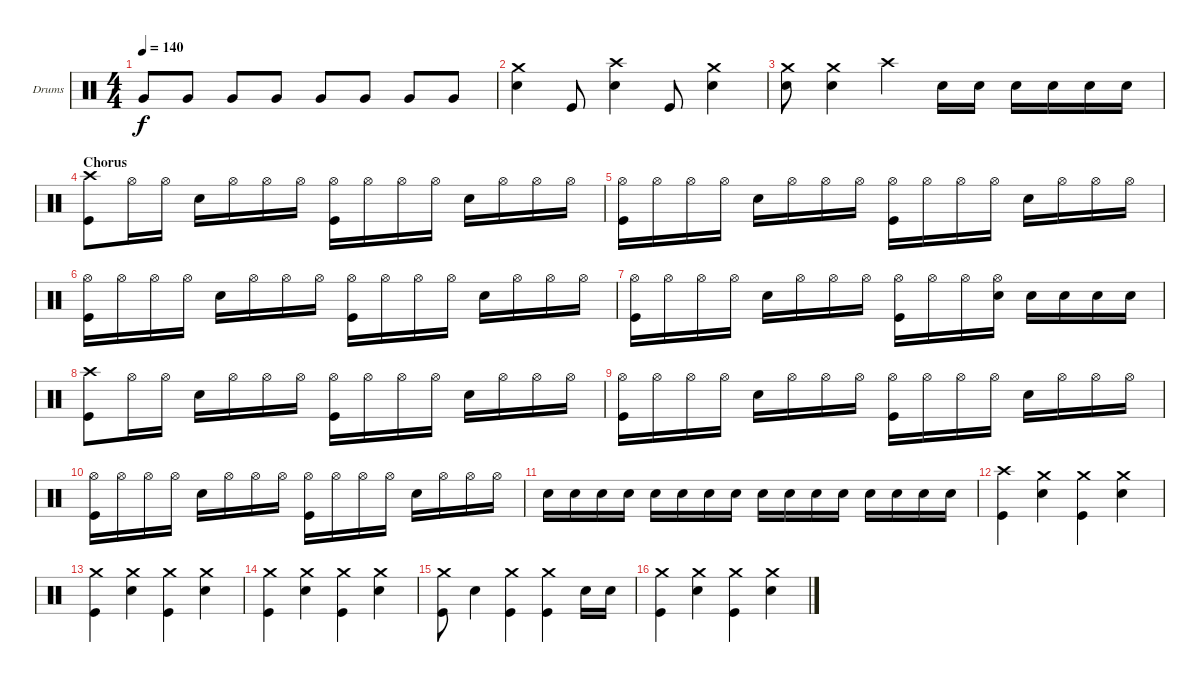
\bracketExtendMode groupsimilarinstruments
\firstSystemTrackNameOrientation horizontal
\otherSystemsTrackNameOrientation horizontal
\track ("Drumkit" "Drums") {instrument percussion}
\staff {score}
\articulation defaults
\ts (4 4)
\tempo 140
\clef neutral
\ks c "Very Low Tom (hit)".8{dy f} "Very Low Tom (hit)".8 "Very Low Tom (hit)".8 "Very Low Tom (hit)".8 "Very Low Tom (hit)".8 "Very Low Tom (hit)".8 "Very Low Tom (hit)".8 "Very Low Tom (hit)".8
|
("Crash medium (hit)" "Snare (hit) 2").4 "Kick (hit)".8 ("Crash high (hit)" "Snare (hit) 2").4 "Kick (hit)".8 ("Crash medium (hit)" "Snare (hit) 2").4 |
("Crash medium (hit)" "Snare (hit) 2").8 ("Crash medium (hit)" "Snare (hit) 2").4 "Crash high (hit)".4 "Snare (hit) 2".16 "Snare (hit) 2".16 "Snare (hit) 2".16 "Snare (hit) 2".16 "Snare (hit) 2".16 "Snare (hit) 2".16 |
\section ("" "Chorus")
("Crash high (hit)" "Kick (hit)").8 "Hi-Hat (open)".16 "Hi-Hat (open)".16 "Snare (hit) 2".16 "Hi-Hat (open)".16 "Hi-Hat (open)".16 "Hi-Hat (open)".16 ("Hi-Hat (open)" "Kick (hit)").16 "Hi-Hat (open)".16 "Hi-Hat (open)".16 "Hi-Hat (open)".16 "Snare (hit) 2".16 "Hi-Hat (open)".16 "Hi-Hat (open)".16 "Hi-Hat (open)".16 |
("Hi-Hat (open)" "Kick (hit)").16 "Hi-Hat (open)".16 "Hi-Hat (open)".16 "Hi-Hat (open)".16 "Snare (hit) 2".16 "Hi-Hat (open)".16 "Hi-Hat (open)".16 "Hi-Hat (open)".16 ("Hi-Hat (open)" "Kick (hit)").16 "Hi-Hat (open)".16 "Hi-Hat (open)".16 "Hi-Hat (open)".16 "Snare (hit) 2".16 "Hi-Hat (open)".16 "Hi-Hat (open)".16 "Hi-Hat (open)".16 |
("Hi-Hat (open)" "Kick (hit)").16 "Hi-Hat (open)".16 "Hi-Hat (open)".16 "Hi-Hat (open)".16 "Snare (hit) 2".16 "Hi-Hat (open)".16 "Hi-Hat (open)".16 "Hi-Hat (open)".16 ("Hi-Hat (open)" "Kick (hit)").16 "Hi-Hat (open)".16 "Hi-Hat (open)".16 "Hi-Hat (open)".16 "Snare (hit) 2".16 "Hi-Hat (open)".16 "Hi-Hat (open)".16 "Hi-Hat (open)".16 |
("Hi-Hat (open)" "Kick (hit)").16 "Hi-Hat (open)".16 "Hi-Hat (open)".16 "Hi-Hat (open)".16 "Snare (hit) 2".16 "Hi-Hat (open)".16 "Hi-Hat (open)".16 "Hi-Hat (open)".16 ("Hi-Hat (open)" "Kick (hit)").16 "Hi-Hat (open)".16 "Hi-Hat (open)".16 ("Hi-Hat (open)" "Snare (hit) 2").16 "Snare (hit) 2".16 "Snare (hit) 2".16 "Snare (hit) 2".16 "Snare (hit) 2".16 |
("Crash high (hit)" "Kick (hit)").8 "Hi-Hat (open)".16 "Hi-Hat (open)".16 "Snare (hit) 2".16 "Hi-Hat (open)".16 "Hi-Hat (open)".16 "Hi-Hat (open)".16 ("Hi-Hat (open)" "Kick (hit)").16 "Hi-Hat (open)".16 "Hi-Hat (open)".16 "Hi-Hat (open)".16 "Snare (hit) 2".16 "Hi-Hat (open)".16 "Hi-Hat (open)".16 "Hi-Hat (open)".16 |
("Hi-Hat (open)" "Kick (hit)").16 "Hi-Hat (open)".16 "Hi-Hat (open)".16 "Hi-Hat (open)".16 "Snare (hit) 2".16 "Hi-Hat (open)".16 "Hi-Hat (open)".16 "Hi-Hat (open)".16 ("Hi-Hat (open)" "Kick (hit)").16 "Hi-Hat (open)".16 "Hi-Hat (open)".16 "Hi-Hat (open)".16 "Snare (hit) 2".16 "Hi-Hat (open)".16 "Hi-Hat (open)".16 "Hi-Hat (open)".16 |
("Hi-Hat (open)" "Kick (hit)").16 "Hi-Hat (open)".16 "Hi-Hat (open)".16 "Hi-Hat (open)".16 "Snare (hit) 2".16 "Hi-Hat (open)".16 "Hi-Hat (open)".16 "Hi-Hat (open)".16 ("Hi-Hat (open)" "Kick (hit)").16 "Hi-Hat (open)".16 "Hi-Hat (open)".16 "Hi-Hat (open)".16 "Snare (hit) 2".16 "Hi-Hat (open)".16 "Hi-Hat (open)".16 "Hi-Hat (open)".16 |
"Snare (hit) 2".16 "Snare (hit) 2".16 "Snare (hit) 2".16 "Snare (hit) 2".16 "Snare (hit) 2".16 "Snare (hit) 2".16 "Snare (hit) 2".16 "Snare (hit) 2".16 "Snare (hit) 2".16 "Snare (hit) 2".16 "Snare (hit) 2".16 "Snare (hit) 2".16 "Snare (hit) 2".16 "Snare (hit) 2".16 "Snare (hit) 2".16 "Snare (hit) 2".16 |
("Crash high (hit)" "Kick (hit)").4 ("Crash medium (hit)" "Snare (hit) 2").4 ("Crash medium (hit)" "Kick (hit)").4 ("Crash medium (hit)" "Snare (hit) 2").4 |
("Crash medium (hit)" "Kick (hit)").4 ("Crash medium (hit)" "Snare (hit) 2").4 ("Crash medium (hit)" "Kick (hit)").4 ("Crash medium (hit)" "Snare (hit) 2").4 |
("Crash medium (hit)" "Kick (hit)").4 ("Crash medium (hit)" "Snare (hit) 2").4 ("Crash medium (hit)" "Kick (hit)").4 ("Crash medium (hit)" "Snare (hit) 2").4 |
("Crash medium (hit)" "Kick (hit)").8 "Snare (hit) 2".4 ("Crash medium (hit)" "Kick (hit)").4 ("Crash medium (hit)" "Kick (hit)").4 "Snare (hit) 2".16 "Snare (hit) 2".16 |
("Crash medium (hit)" "Kick (hit)").4 ("Crash medium (hit)" "Snare (hit) 2").4 ("Crash medium (hit)" "Kick (hit)").4 ("Crash medium (hit)" "Snare (hit) 2").4
